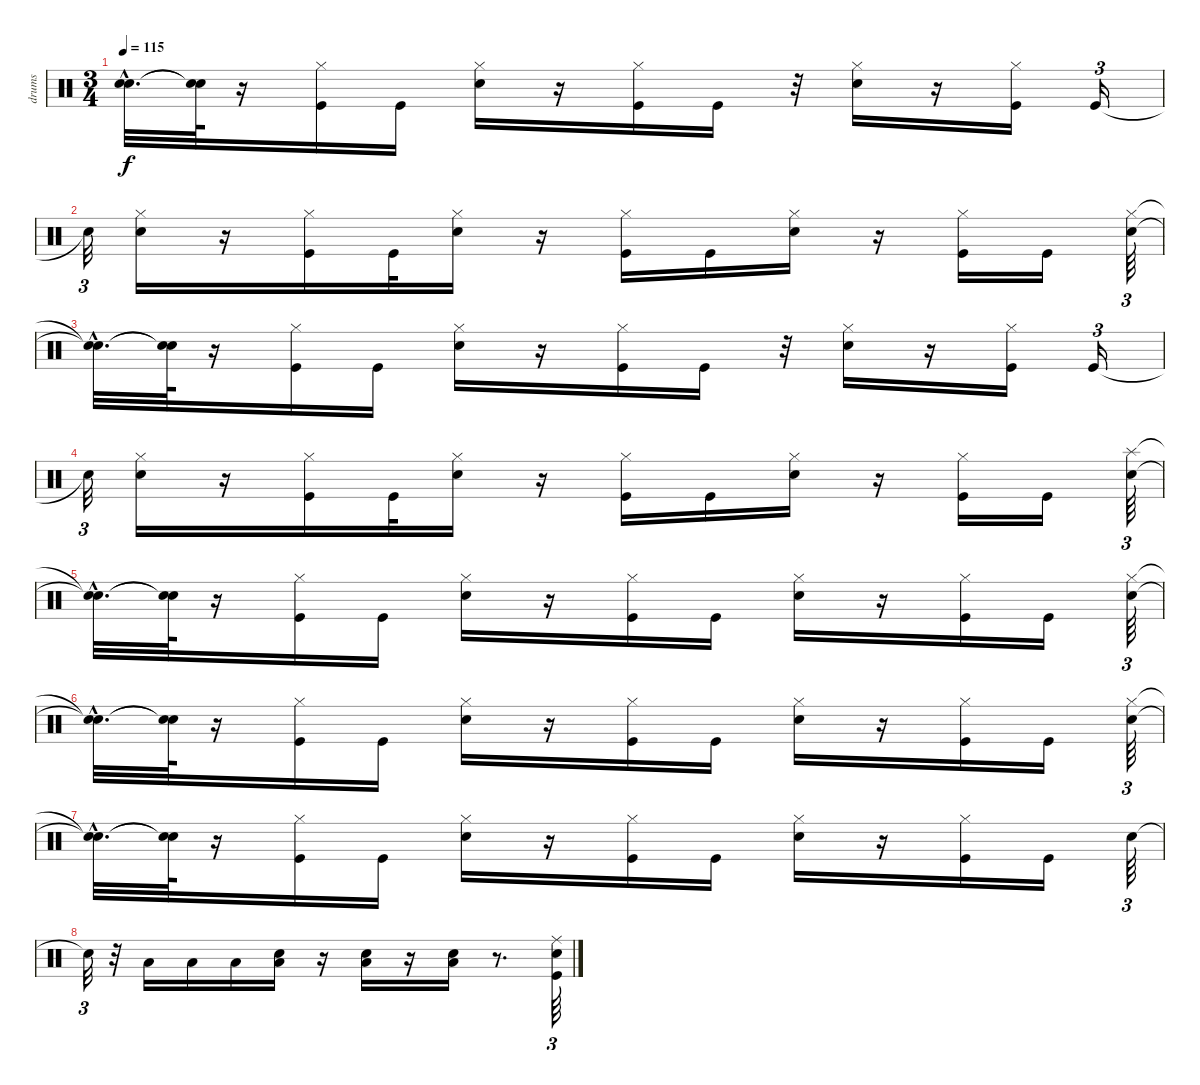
\track ("drums" "drums") {instrument percussion}
\staff {score}
\articulation defaults
\ts (3 4)
\tempo 115
\clef neutral
\ks c
("Snare (hit)"{hac t} "Snare (hit)"{hac t}).32{d dy f} ("Snare (hit)"{t} "Snare (hit)"{t}).64 r.16 ("Hi-Hat (closed)" "Kick (hit)").16 "Kick (hit)".16 ("Hi-Hat (closed)" "Electric Snare (hit)").16 r.16 ("Hi-Hat (closed)" "Kick (hit)").16 "Kick (hit)".16 r.32 ("Hi-Hat (closed)" "Electric Snare (hit)").16 r.16 ("Hi-Hat (closed)" "Kick (hit)").16 "Kick (hit)".16{tu (3 2)} |
"Snare (hit)"{t}.32{tu (3 2)} ("Hi-Hat (closed)" "Electric Snare (hit)").16 r.16 ("Hi-Hat (closed)" "Kick (hit)").16 "Kick (hit)".32 ("Hi-Hat (closed)" "Electric Snare (hit)").16 r.16 ("Hi-Hat (closed)" "Kick (hit)").16 "Kick (hit)".16 ("Hi-Hat (closed)" "Electric Snare (hit)").16 r.16 ("Hi-Hat (closed)" "Kick (hit)").16 "Kick (hit)".16 ("Hi-Hat (closed)" "Electric Snare (hit)").64{tu (3 2)} |
("Snare (hit)"{hac t} "Snare (hit)"{hac t}).32{d} ("Snare (hit)"{t} "Snare (hit)"{t}).64 r.16 ("Hi-Hat (closed)" "Kick (hit)").16 "Kick (hit)".16 ("Hi-Hat (closed)" "Electric Snare (hit)").16 r.16 ("Hi-Hat (closed)" "Kick (hit)").16 "Kick (hit)".16 r.32 ("Hi-Hat (closed)" "Electric Snare (hit)").16 r.16 ("Hi-Hat (closed)" "Kick (hit)").16 "Kick (hit)".16{tu (3 2)} |
"Snare (hit)"{t}.32{tu (3 2)} ("Hi-Hat (closed)" "Electric Snare (hit)").16 r.16 ("Hi-Hat (closed)" "Kick (hit)").16 "Kick (hit)".32 ("Hi-Hat (closed)" "Electric Snare (hit)").16 r.16 ("Hi-Hat (closed)" "Kick (hit)").16 "Kick (hit)".16 ("Hi-Hat (closed)" "Electric Snare (hit)").16 r.16 ("Hi-Hat (closed)" "Kick (hit)").16 "Kick (hit)".16 ("Electric Snare (hit)" "Splash (hit)").64{tu (3 2)} |
("Snare (hit)"{hac t} "Snare (hit)"{hac t}).32{d} ("Snare (hit)"{t} "Snare (hit)"{t}).64 r.16 ("Hi-Hat (closed)" "Kick (hit)").16 "Kick (hit)".16 ("Hi-Hat (closed)" "Electric Snare (hit)").16 r.16 ("Hi-Hat (closed)" "Kick (hit)").16 "Kick (hit)".16 ("Hi-Hat (closed)" "Electric Snare (hit)").16 r.16 ("Hi-Hat (closed)" "Kick (hit)").16 "Kick (hit)".16 ("Hi-Hat (closed)" "Electric Snare (hit)").64{tu (3 2)} |
("Snare (hit)"{hac t} "Snare (hit)"{hac t}).32{d} ("Snare (hit)"{t} "Snare (hit)"{t}).64 r.16 ("Hi-Hat (closed)" "Kick (hit)").16 "Kick (hit)".16 ("Hi-Hat (closed)" "Electric Snare (hit)").16 r.16 ("Hi-Hat (closed)" "Kick (hit)").16 "Kick (hit)".16 ("Hi-Hat (closed)" "Electric Snare (hit)").16 r.16 ("Hi-Hat (closed)" "Kick (hit)").16 "Kick (hit)".16 ("Hi-Hat (closed)" "Electric Snare (hit)").64{tu (3 2)} |
("Snare (hit)"{hac t} "Snare (hit)"{hac t}).32{d} ("Snare (hit)"{t} "Snare (hit)"{t}).64 r.16 ("Hi-Hat (closed)" "Kick (hit)").16 "Kick (hit)".16 ("Hi-Hat (closed)" "Electric Snare (hit)").16 r.16 ("Hi-Hat (closed)" "Kick (hit)").16 "Kick (hit)".16 ("Hi-Hat (closed)" "Electric Snare (hit)").16 r.16 ("Hi-Hat (closed)" "Kick (hit)").16 "Kick (hit)".16 "Electric Snare (hit)".64{tu (3 2)} |
"Snare (hit)"{t}.32{tu (3 2)} r.32 "Low Tom (hit)".16 "Low Floor Tom (hit)".16 "Low Tom (hit)".16 ("Low Floor Tom (hit)" "Electric Snare (hit)").16 r.16 ("Low Floor Tom (hit)" "Electric Snare (hit)").16 r.16 ("Low Floor Tom (hit)" "Electric Snare (hit)").16 r.8{d} ("Kick (hit)" "Ride (middle)" "Electric Snare (hit)").64{tu (3 2)}
